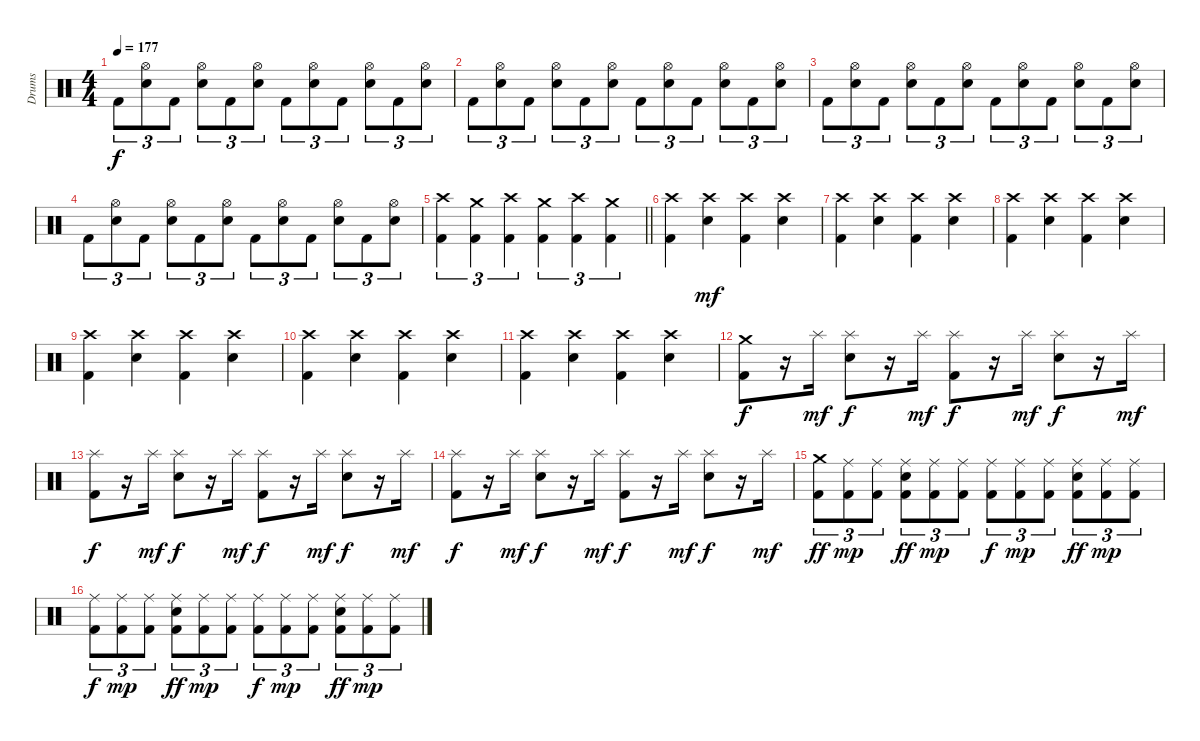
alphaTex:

\track ("Drums" "Drums") {instrument percussion}
\staff {score}
\articulation defaults
\ts (4 4)
\tempo 177
\clef neutral
\ks c "Kick (hit) 2".8{tu (3 2) dy f}
("Hi-Hat (open)" "Electric Snare (hit)").8{tu (3 2)} "Kick (hit) 2".8{tu (3 2)} ("Hi-Hat (open)" "Electric Snare (hit)").8{tu (3 2)} "Kick (hit) 2".8{tu (3 2)} ("Hi-Hat (open)" "Electric Snare (hit)").8{tu (3 2)} "Kick (hit) 2".8{tu (3 2)} ("Hi-Hat (open)" "Electric Snare (hit)").8{tu (3 2)} "Kick (hit) 2".8{tu (3 2)} ("Hi-Hat (open)" "Electric Snare (hit)").8{tu (3 2)} "Kick (hit) 2".8{tu (3 2)} ("Hi-Hat (open)" "Electric Snare (hit)").8{tu (3 2)} |
"Kick (hit) 2".8{tu (3 2)} ("Hi-Hat (open)" "Electric Snare (hit)").8{tu (3 2)} "Kick (hit) 2".8{tu (3 2)} ("Hi-Hat (open)" "Electric Snare (hit)").8{tu (3 2)} "Kick (hit) 2".8{tu (3 2)} ("Hi-Hat (open)" "Electric Snare (hit)").8{tu (3 2)} "Kick (hit) 2".8{tu (3 2)} ("Hi-Hat (open)" "Electric Snare (hit)").8{tu (3 2)} "Kick (hit) 2".8{tu (3 2)} ("Hi-Hat (open)" "Electric Snare (hit)").8{tu (3 2)} "Kick (hit) 2".8{tu (3 2)} ("Hi-Hat (open)" "Electric Snare (hit)").8{tu (3 2)} |
"Kick (hit) 2".8{tu (3 2)} ("Hi-Hat (open)" "Electric Snare (hit)").8{tu (3 2)} "Kick (hit) 2".8{tu (3 2)} ("Hi-Hat (open)" "Electric Snare (hit)").8{tu (3 2)} "Kick (hit) 2".8{tu (3 2)} ("Hi-Hat (open)" "Electric Snare (hit)").8{tu (3 2)} "Kick (hit) 2".8{tu (3 2)} ("Hi-Hat (open)" "Electric Snare (hit)").8{tu (3 2)} "Kick (hit) 2".8{tu (3 2)} ("Hi-Hat (open)" "Electric Snare (hit)").8{tu (3 2)} "Kick (hit) 2".8{tu (3 2)} ("Hi-Hat (open)" "Electric Snare (hit)").8{tu (3 2)} |
"Kick (hit) 2".8{tu (3 2)} ("Hi-Hat (open)" "Electric Snare (hit)").8{tu (3 2)} "Kick (hit) 2".8{tu (3 2)} ("Hi-Hat (open)" "Electric Snare (hit)").8{tu (3 2)} "Kick (hit) 2".8{tu (3 2)} ("Hi-Hat (open)" "Electric Snare (hit)").8{tu (3 2)} "Kick (hit) 2".8{tu (3 2)} ("Hi-Hat (open)" "Electric Snare (hit)").8{tu (3 2)} "Kick (hit) 2".8{tu (3 2)} ("Hi-Hat (open)" "Electric Snare (hit)").8{tu (3 2)} "Kick (hit) 2".8{tu (3 2)} ("Hi-Hat (open)" "Electric Snare (hit)").8{tu (3 2)} |
\barLineRight lightlight
("Crash high (hit)" "Kick (hit) 2").4{tu (3 2)} ("Crash medium (hit)" "Kick (hit) 2").4{tu (3 2)} ("Crash high (hit)" "Kick (hit) 2").4{tu (3 2)} ("Crash medium (hit)" "Kick (hit) 2").4{tu (3 2)} ("Crash high (hit)" "Kick (hit) 2").4{tu (3 2)} ("Crash medium (hit)" "Kick (hit) 2").4{tu (3 2)} |
("Crash high (hit)" "Kick (hit) 2").4 ("Crash high (hit)" "Electric Snare (hit)").4{dy mf} ("Crash high (hit)" "Kick (hit) 2").4 ("Crash high (hit)" "Electric Snare (hit)").4 |
("Crash high (hit)" "Kick (hit) 2").4 ("Crash high (hit)" "Electric Snare (hit)").4 ("Crash high (hit)" "Kick (hit) 2").4 ("Crash high (hit)" "Electric Snare (hit)").4 |
("Crash high (hit)" "Kick (hit) 2").4 ("Crash high (hit)" "Electric Snare (hit)").4 ("Crash high (hit)" "Kick (hit) 2").4 ("Crash high (hit)" "Electric Snare (hit)").4 |
("Crash high (hit)" "Kick (hit) 2").4 ("Crash high (hit)" "Electric Snare (hit)").4 ("Crash high (hit)" "Kick (hit) 2").4 ("Crash high (hit)" "Electric Snare (hit)").4 |
("Crash high (hit)" "Kick (hit) 2").4 ("Crash high (hit)" "Electric Snare (hit)").4 ("Crash high (hit)" "Kick (hit) 2").4 ("Crash high (hit)" "Electric Snare (hit)").4 |
("Crash high (hit)" "Kick (hit) 2").4 ("Crash high (hit)" "Electric Snare (hit)").4 ("Crash high (hit)" "Kick (hit) 2").4 ("Crash high (hit)" "Electric Snare (hit)").4 |
("Crash medium (hit)" "Kick (hit) 2").8{dy f} r.16 "Splash (hit)".16{dy mf} ("Splash (hit)" "Electric Snare (hit)").8{dy f} r.16 "Splash (hit)".16{dy mf} ("Splash (hit)" "Kick (hit) 2").8{dy f} r.16 "Splash (hit)".16{dy mf} ("Splash (hit)" "Electric Snare (hit)").8{dy f} r.16 "Splash (hit)".16{dy mf} |
("Splash (hit)" "Kick (hit) 2").8{dy f} r.16 "Splash (hit)".16{dy mf} ("Splash (hit)" "Electric Snare (hit)").8{dy f} r.16 "Splash (hit)".16{dy mf} ("Splash (hit)" "Kick (hit) 2").8{dy f} r.16 "Splash (hit)".16{dy mf} ("Splash (hit)" "Electric Snare (hit)").8{dy f} r.16 "Splash (hit)".16{dy mf} |
("Splash (hit)" "Kick (hit) 2").8{dy f} r.16 "Splash (hit)".16{dy mf} ("Splash (hit)" "Electric Snare (hit)").8{dy f} r.16 "Splash (hit)".16{dy mf} ("Splash (hit)" "Kick (hit) 2").8{dy f} r.16 "Splash (hit)".16{dy mf} ("Splash (hit)" "Electric Snare (hit)").8{dy f} r.16 "Splash (hit)".16{dy mf} |
("Crash medium (hit)" "Kick (hit) 2").8{tu (3 2) dy ff} ("Ride (middle)" "Kick (hit) 2").8{tu (3 2) dy mp} ("Ride (middle)" "Kick (hit) 2").8{tu (3 2)} ("Ride (middle)" "Electric Snare (hit)" "Kick (hit) 2").8{tu (3 2) dy ff} ("Ride (middle)" "Kick (hit) 2").8{tu (3 2) dy mp} ("Ride (middle)" "Kick (hit) 2").8{tu (3 2)} ("Ride (middle)" "Kick (hit) 2").8{tu (3 2) dy f} ("Ride (middle)" "Kick (hit) 2").8{tu (3 2) dy mp} ("Ride (middle)" "Kick (hit) 2").8{tu (3 2)} ("Ride (middle)" "Electric Snare (hit)" "Kick (hit) 2").8{tu (3 2) dy ff} ("Ride (middle)" "Kick (hit) 2").8{tu (3 2) dy mp} ("Ride (middle)" "Kick (hit) 2").8{tu (3 2)} |
("Ride (middle)" "Kick (hit) 2").8{tu (3 2) dy f} ("Ride (middle)" "Kick (hit) 2").8{tu (3 2) dy mp} ("Ride (middle)" "Kick (hit) 2").8{tu (3 2)} ("Ride (middle)" "Electric Snare (hit)" "Kick (hit) 2").8{tu (3 2) dy ff} ("Ride (middle)" "Kick (hit) 2").8{tu (3 2) dy mp} ("Ride (middle)" "Kick (hit) 2").8{tu (3 2)} ("Ride (middle)" "Kick (hit) 2").8{tu (3 2) dy f} ("Ride (middle)" "Kick (hit) 2").8{tu (3 2) dy mp} ("Ride (middle)" "Kick (hit) 2").8{tu (3 2)} ("Ride (middle)" "Electric Snare (hit)" "Kick (hit) 2").8{tu (3 2) dy ff} ("Ride (middle)" "Kick (hit) 2").8{tu (3 2) dy mp} ("Ride (middle)" "Kick (hit) 2").8{tu (3 2)}
